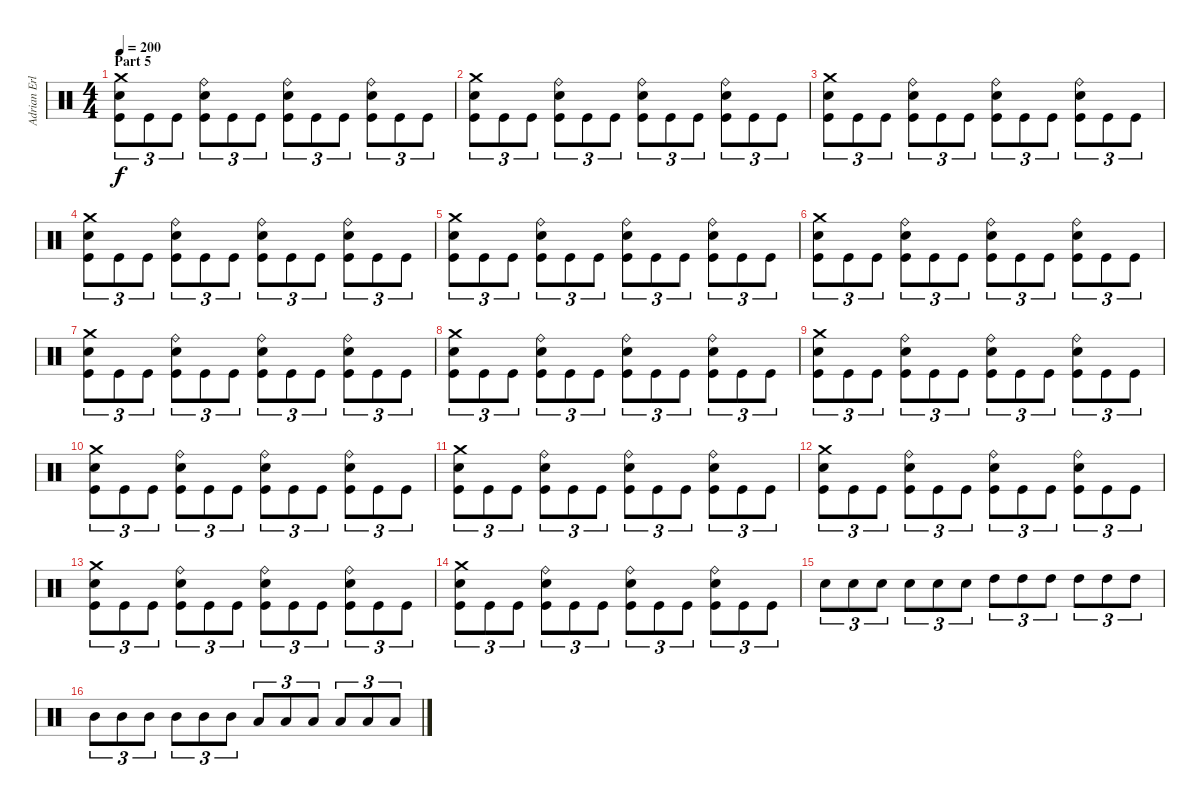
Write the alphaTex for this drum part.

\track ("Adrian Erlandsson" "Adrian Erl") {instrument percussion}
\staff {score}
\articulation defaults
\ts (4 4)
\section ("" "Part 5")
\tempo 200
\clef neutral
\ks c
("Crash medium (hit)" "Electric Snare (hit)" "Kick (hit)").8{tu (3 2) dy f} "Kick (hit)".8{tu (3 2)} "Kick (hit)".8{tu (3 2)} ("Ride (bell)" "Electric Snare (hit)" "Kick (hit)").8{tu (3 2)} "Kick (hit)".8{tu (3 2)} "Kick (hit)".8{tu (3 2)} ("Ride (bell)" "Electric Snare (hit)" "Kick (hit)").8{tu (3 2)} "Kick (hit)".8{tu (3 2)} "Kick (hit)".8{tu (3 2)} ("Ride (bell)" "Electric Snare (hit)" "Kick (hit)").8{tu (3 2)} "Kick (hit)".8{tu (3 2)} "Kick (hit)".8{tu (3 2)} |
("Crash medium (hit)" "Electric Snare (hit)" "Kick (hit)").8{tu (3 2)} "Kick (hit)".8{tu (3 2)} "Kick (hit)".8{tu (3 2)} ("Ride (bell)" "Electric Snare (hit)" "Kick (hit)").8{tu (3 2)} "Kick (hit)".8{tu (3 2)} "Kick (hit)".8{tu (3 2)} ("Ride (bell)" "Electric Snare (hit)" "Kick (hit)").8{tu (3 2)} "Kick (hit)".8{tu (3 2)} "Kick (hit)".8{tu (3 2)} ("Ride (bell)" "Electric Snare (hit)" "Kick (hit)").8{tu (3 2)} "Kick (hit)".8{tu (3 2)} "Kick (hit)".8{tu (3 2)} |
("Crash medium (hit)" "Electric Snare (hit)" "Kick (hit)").8{tu (3 2)} "Kick (hit)".8{tu (3 2)} "Kick (hit)".8{tu (3 2)} ("Ride (bell)" "Electric Snare (hit)" "Kick (hit)").8{tu (3 2)} "Kick (hit)".8{tu (3 2)} "Kick (hit)".8{tu (3 2)} ("Ride (bell)" "Electric Snare (hit)" "Kick (hit)").8{tu (3 2)} "Kick (hit)".8{tu (3 2)} "Kick (hit)".8{tu (3 2)} ("Ride (bell)" "Electric Snare (hit)" "Kick (hit)").8{tu (3 2)} "Kick (hit)".8{tu (3 2)} "Kick (hit)".8{tu (3 2)} |
("Crash medium (hit)" "Electric Snare (hit)" "Kick (hit)").8{tu (3 2)} "Kick (hit)".8{tu (3 2)} "Kick (hit)".8{tu (3 2)} ("Ride (bell)" "Electric Snare (hit)" "Kick (hit)").8{tu (3 2)} "Kick (hit)".8{tu (3 2)} "Kick (hit)".8{tu (3 2)} ("Ride (bell)" "Electric Snare (hit)" "Kick (hit)").8{tu (3 2)} "Kick (hit)".8{tu (3 2)} "Kick (hit)".8{tu (3 2)} ("Ride (bell)" "Electric Snare (hit)" "Kick (hit)").8{tu (3 2)} "Kick (hit)".8{tu (3 2)} "Kick (hit)".8{tu (3 2)} |
("Crash medium (hit)" "Electric Snare (hit)" "Kick (hit)").8{tu (3 2)} "Kick (hit)".8{tu (3 2)} "Kick (hit)".8{tu (3 2)} ("Ride (bell)" "Electric Snare (hit)" "Kick (hit)").8{tu (3 2)} "Kick (hit)".8{tu (3 2)} "Kick (hit)".8{tu (3 2)} ("Ride (bell)" "Electric Snare (hit)" "Kick (hit)").8{tu (3 2)} "Kick (hit)".8{tu (3 2)} "Kick (hit)".8{tu (3 2)} ("Ride (bell)" "Electric Snare (hit)" "Kick (hit)").8{tu (3 2)} "Kick (hit)".8{tu (3 2)} "Kick (hit)".8{tu (3 2)} |
("Crash medium (hit)" "Electric Snare (hit)" "Kick (hit)").8{tu (3 2)} "Kick (hit)".8{tu (3 2)} "Kick (hit)".8{tu (3 2)} ("Ride (bell)" "Electric Snare (hit)" "Kick (hit)").8{tu (3 2)} "Kick (hit)".8{tu (3 2)} "Kick (hit)".8{tu (3 2)} ("Ride (bell)" "Electric Snare (hit)" "Kick (hit)").8{tu (3 2)} "Kick (hit)".8{tu (3 2)} "Kick (hit)".8{tu (3 2)} ("Ride (bell)" "Electric Snare (hit)" "Kick (hit)").8{tu (3 2)} "Kick (hit)".8{tu (3 2)} "Kick (hit)".8{tu (3 2)} |
("Crash medium (hit)" "Electric Snare (hit)" "Kick (hit)").8{tu (3 2)} "Kick (hit)".8{tu (3 2)} "Kick (hit)".8{tu (3 2)} ("Ride (bell)" "Electric Snare (hit)" "Kick (hit)").8{tu (3 2)} "Kick (hit)".8{tu (3 2)} "Kick (hit)".8{tu (3 2)} ("Ride (bell)" "Electric Snare (hit)" "Kick (hit)").8{tu (3 2)} "Kick (hit)".8{tu (3 2)} "Kick (hit)".8{tu (3 2)} ("Ride (bell)" "Electric Snare (hit)" "Kick (hit)").8{tu (3 2)} "Kick (hit)".8{tu (3 2)} "Kick (hit)".8{tu (3 2)} |
("Crash medium (hit)" "Electric Snare (hit)" "Kick (hit)").8{tu (3 2)} "Kick (hit)".8{tu (3 2)} "Kick (hit)".8{tu (3 2)} ("Ride (bell)" "Electric Snare (hit)" "Kick (hit)").8{tu (3 2)} "Kick (hit)".8{tu (3 2)} "Kick (hit)".8{tu (3 2)} ("Ride (bell)" "Electric Snare (hit)" "Kick (hit)").8{tu (3 2)} "Kick (hit)".8{tu (3 2)} "Kick (hit)".8{tu (3 2)} ("Ride (bell)" "Electric Snare (hit)" "Kick (hit)").8{tu (3 2)} "Kick (hit)".8{tu (3 2)} "Kick (hit)".8{tu (3 2)} |
("Crash medium (hit)" "Electric Snare (hit)" "Kick (hit)").8{tu (3 2)} "Kick (hit)".8{tu (3 2)} "Kick (hit)".8{tu (3 2)} ("Ride (bell)" "Electric Snare (hit)" "Kick (hit)").8{tu (3 2)} "Kick (hit)".8{tu (3 2)} "Kick (hit)".8{tu (3 2)} ("Ride (bell)" "Electric Snare (hit)" "Kick (hit)").8{tu (3 2)} "Kick (hit)".8{tu (3 2)} "Kick (hit)".8{tu (3 2)} ("Ride (bell)" "Electric Snare (hit)" "Kick (hit)").8{tu (3 2)} "Kick (hit)".8{tu (3 2)} "Kick (hit)".8{tu (3 2)} |
("Crash medium (hit)" "Electric Snare (hit)" "Kick (hit)").8{tu (3 2)} "Kick (hit)".8{tu (3 2)} "Kick (hit)".8{tu (3 2)} ("Ride (bell)" "Electric Snare (hit)" "Kick (hit)").8{tu (3 2)} "Kick (hit)".8{tu (3 2)} "Kick (hit)".8{tu (3 2)} ("Ride (bell)" "Electric Snare (hit)" "Kick (hit)").8{tu (3 2)} "Kick (hit)".8{tu (3 2)} "Kick (hit)".8{tu (3 2)} ("Ride (bell)" "Electric Snare (hit)" "Kick (hit)").8{tu (3 2)} "Kick (hit)".8{tu (3 2)} "Kick (hit)".8{tu (3 2)} |
("Crash medium (hit)" "Electric Snare (hit)" "Kick (hit)").8{tu (3 2)} "Kick (hit)".8{tu (3 2)} "Kick (hit)".8{tu (3 2)} ("Ride (bell)" "Electric Snare (hit)" "Kick (hit)").8{tu (3 2)} "Kick (hit)".8{tu (3 2)} "Kick (hit)".8{tu (3 2)} ("Ride (bell)" "Electric Snare (hit)" "Kick (hit)").8{tu (3 2)} "Kick (hit)".8{tu (3 2)} "Kick (hit)".8{tu (3 2)} ("Ride (bell)" "Electric Snare (hit)" "Kick (hit)").8{tu (3 2)} "Kick (hit)".8{tu (3 2)} "Kick (hit)".8{tu (3 2)} |
("Crash medium (hit)" "Electric Snare (hit)" "Kick (hit)").8{tu (3 2)} "Kick (hit)".8{tu (3 2)} "Kick (hit)".8{tu (3 2)} ("Ride (bell)" "Electric Snare (hit)" "Kick (hit)").8{tu (3 2)} "Kick (hit)".8{tu (3 2)} "Kick (hit)".8{tu (3 2)} ("Ride (bell)" "Electric Snare (hit)" "Kick (hit)").8{tu (3 2)} "Kick (hit)".8{tu (3 2)} "Kick (hit)".8{tu (3 2)} ("Ride (bell)" "Electric Snare (hit)" "Kick (hit)").8{tu (3 2)} "Kick (hit)".8{tu (3 2)} "Kick (hit)".8{tu (3 2)} |
("Crash medium (hit)" "Electric Snare (hit)" "Kick (hit)").8{tu (3 2)} "Kick (hit)".8{tu (3 2)} "Kick (hit)".8{tu (3 2)} ("Ride (bell)" "Electric Snare (hit)" "Kick (hit)").8{tu (3 2)} "Kick (hit)".8{tu (3 2)} "Kick (hit)".8{tu (3 2)} ("Ride (bell)" "Electric Snare (hit)" "Kick (hit)").8{tu (3 2)} "Kick (hit)".8{tu (3 2)} "Kick (hit)".8{tu (3 2)} ("Ride (bell)" "Electric Snare (hit)" "Kick (hit)").8{tu (3 2)} "Kick (hit)".8{tu (3 2)} "Kick (hit)".8{tu (3 2)} |
("Crash medium (hit)" "Electric Snare (hit)" "Kick (hit)").8{tu (3 2)} "Kick (hit)".8{tu (3 2)} "Kick (hit)".8{tu (3 2)} ("Ride (bell)" "Electric Snare (hit)" "Kick (hit)").8{tu (3 2)} "Kick (hit)".8{tu (3 2)} "Kick (hit)".8{tu (3 2)} ("Ride (bell)" "Electric Snare (hit)" "Kick (hit)").8{tu (3 2)} "Kick (hit)".8{tu (3 2)} "Kick (hit)".8{tu (3 2)} ("Ride (bell)" "Electric Snare (hit)" "Kick (hit)").8{tu (3 2)} "Kick (hit)".8{tu (3 2)} "Kick (hit)".8{tu (3 2)} |
"Electric Snare (hit)".8{tu (3 2)} "Electric Snare (hit)".8{tu (3 2)} "Electric Snare (hit)".8{tu (3 2)} "Electric Snare (hit)".8{tu (3 2)} "Electric Snare (hit)".8{tu (3 2)} "Electric Snare (hit)".8{tu (3 2)} "High Tom (hit)".8{tu (3 2)} "High Tom (hit)".8{tu (3 2)} "High Tom (hit)".8{tu (3 2)} "High Tom (hit)".8{tu (3 2)} "High Tom (hit)".8{tu (3 2)} "High Tom (hit)".8{tu (3 2)} |
"Mid Tom (hit)".8{tu (3 2)} "Mid Tom (hit)".8{tu (3 2)} "Mid Tom (hit)".8{tu (3 2)} "Mid Tom (hit)".8{tu (3 2)} "Mid Tom (hit)".8{tu (3 2)} "Mid Tom (hit)".8{tu (3 2)} "Low Tom (hit)".8{tu (3 2)} "Low Tom (hit)".8{tu (3 2)} "Low Tom (hit)".8{tu (3 2)} "Low Tom (hit)".8{tu (3 2)} "Low Tom (hit)".8{tu (3 2)} "Low Tom (hit)".8{tu (3 2)}
